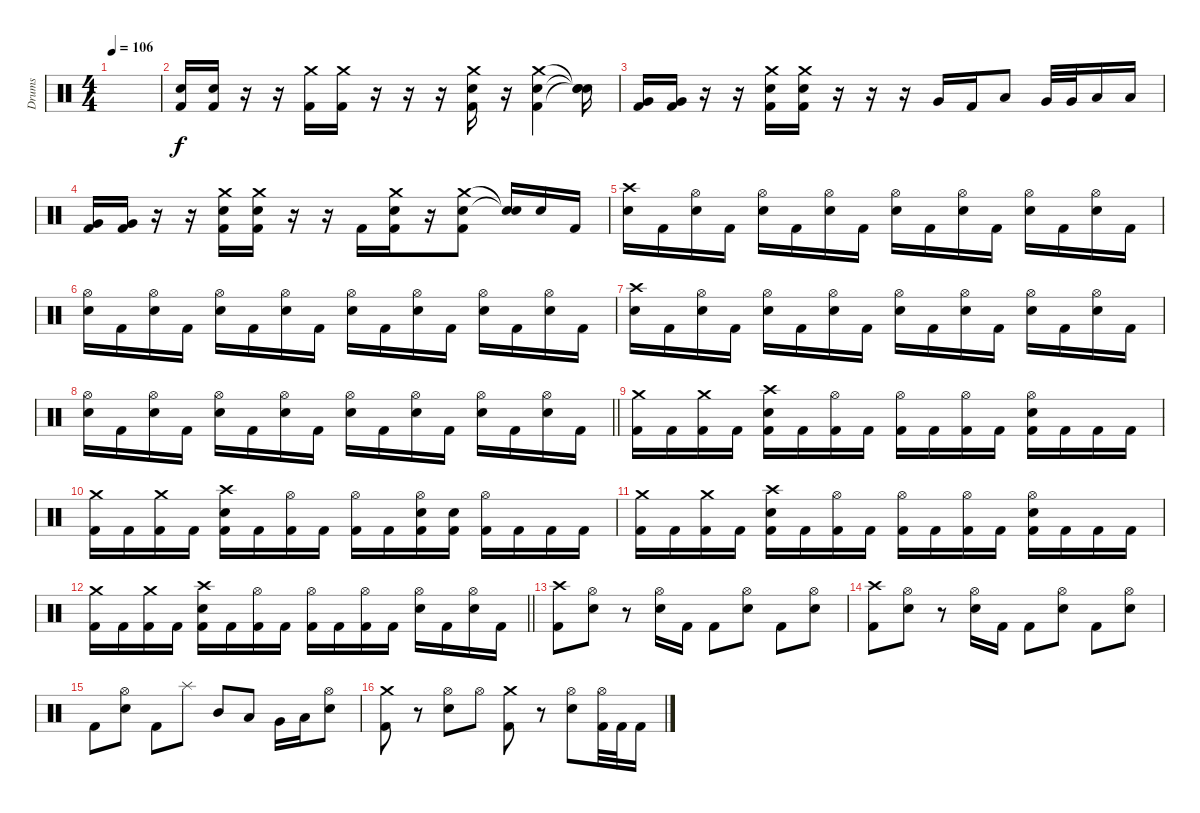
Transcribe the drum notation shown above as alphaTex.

\track ("Drums" "Drums") {instrument percussion}
\staff {score}
\articulation defaults
\ts (4 4)
\section ("" "")
\tempo 106
\clef neutral
\ks aminor
|
\ks c
("Electric Snare (hit)" "Kick (hit) 2").16 ("Electric Snare (hit)" "Kick (hit) 2").16 r.16 r.16 ("Crash medium (hit)" "Kick (hit) 2").16 ("Crash medium (hit)" "Kick (hit) 2").16 r.16 r.16 r.16 ("Crash medium (hit)" "Electric Snare (hit)" "Kick (hit) 2").16 r.16 ("Crash medium (hit)" "Electric Snare (hit)" "Kick (hit) 2").4 ("Snare (hit)"{t} "Snare (hit)"{t} "Snare (hit)"{t}).16 |
("Very Low Tom (hit)" "Kick (hit) 2").16 ("Very Low Tom (hit)" "Kick (hit) 2").16 r.16 r.16 ("Crash medium (hit)" "Electric Snare (hit)" "Kick (hit) 2").16 ("Crash medium (hit)" "Electric Snare (hit)" "Kick (hit) 2").16 r.16 r.16 r.16 "Very Low Tom (hit)".16 "Kick (hit) 2".16 "Low Floor Tom (hit)".8 "Very Low Tom (hit)".32 "Very Low Tom (hit)".32 "Low Floor Tom (hit)".16 "Low Floor Tom (hit)".16 |
("Very Low Tom (hit)" "Kick (hit) 2").16 ("Very Low Tom (hit)" "Kick (hit) 2").16 r.16 r.16 ("Crash medium (hit)" "Electric Snare (hit)" "Kick (hit) 2").16 ("Crash medium (hit)" "Electric Snare (hit)" "Kick (hit) 2").16 r.16 r.16 "Kick (hit) 2".16 ("Crash medium (hit)" "Electric Snare (hit)" "Kick (hit) 2").16 r.16 ("Crash medium (hit)" "Electric Snare (hit)" "Kick (hit) 2").8 ("Snare (hit)"{t} "Snare (hit)"{t}).16 "Electric Snare (hit)".16 "Kick (hit) 2".16 |
\section ("" "")
("Crash high (hit)" "Electric Snare (hit)").16 "Kick (hit) 2".16 ("Hi-Hat (open)" "Electric Snare (hit)").16 "Kick (hit) 2".16 ("Hi-Hat (open)" "Electric Snare (hit)").16 "Kick (hit) 2".16 ("Hi-Hat (open)" "Electric Snare (hit)").16 "Kick (hit) 2".16 ("Hi-Hat (open)" "Electric Snare (hit)").16 "Kick (hit) 2".16 ("Hi-Hat (open)" "Electric Snare (hit)").16 "Kick (hit) 2".16 ("Hi-Hat (open)" "Electric Snare (hit)").16 "Kick (hit) 2".16 ("Hi-Hat (open)" "Electric Snare (hit)").16 "Kick (hit) 2".16 |
("Hi-Hat (open)" "Electric Snare (hit)").16 "Kick (hit) 2".16 ("Hi-Hat (open)" "Electric Snare (hit)").16 "Kick (hit) 2".16 ("Hi-Hat (open)" "Electric Snare (hit)").16 "Kick (hit) 2".16 ("Hi-Hat (open)" "Electric Snare (hit)").16 "Kick (hit) 2".16 ("Hi-Hat (open)" "Electric Snare (hit)").16 "Kick (hit) 2".16 ("Hi-Hat (open)" "Electric Snare (hit)").16 "Kick (hit) 2".16 ("Hi-Hat (open)" "Electric Snare (hit)").16 "Kick (hit) 2".16 ("Hi-Hat (open)" "Electric Snare (hit)").16 "Kick (hit) 2".16 |
("Crash high (hit)" "Electric Snare (hit)").16 "Kick (hit) 2".16 ("Hi-Hat (open)" "Electric Snare (hit)").16 "Kick (hit) 2".16 ("Hi-Hat (open)" "Electric Snare (hit)").16 "Kick (hit) 2".16 ("Hi-Hat (open)" "Electric Snare (hit)").16 "Kick (hit) 2".16 ("Hi-Hat (open)" "Electric Snare (hit)").16 "Kick (hit) 2".16 ("Hi-Hat (open)" "Electric Snare (hit)").16 "Kick (hit) 2".16 ("Hi-Hat (open)" "Electric Snare (hit)").16 "Kick (hit) 2".16 ("Hi-Hat (open)" "Electric Snare (hit)").16 "Kick (hit) 2".16 |
\barLineRight lightlight
("Hi-Hat (open)" "Electric Snare (hit)").16 "Kick (hit) 2".16 ("Hi-Hat (open)" "Electric Snare (hit)").16 "Kick (hit) 2".16 ("Hi-Hat (open)" "Electric Snare (hit)").16 "Kick (hit) 2".16 ("Hi-Hat (open)" "Electric Snare (hit)").16 "Kick (hit) 2".16 ("Hi-Hat (open)" "Electric Snare (hit)").16 "Kick (hit) 2".16 ("Hi-Hat (open)" "Electric Snare (hit)").16 "Kick (hit) 2".16 ("Hi-Hat (open)" "Electric Snare (hit)").16 "Kick (hit) 2".16 ("Hi-Hat (open)" "Electric Snare (hit)").16 "Kick (hit) 2".16 |
\section ("" "")
("Crash medium (hit)" "Kick (hit) 2").16 "Kick (hit) 2".16 ("Crash medium (hit)" "Kick (hit) 2").16 "Kick (hit) 2".16 ("Crash high (hit)" "Electric Snare (hit)" "Kick (hit) 2").16 "Kick (hit) 2".16 ("Hi-Hat (open)" "Kick (hit) 2").16 "Kick (hit) 2".16 ("Hi-Hat (open)" "Kick (hit) 2").16 "Kick (hit) 2".16 ("Hi-Hat (open)" "Kick (hit) 2").16 "Kick (hit) 2".16 ("Hi-Hat (open)" "Electric Snare (hit)" "Kick (hit) 2").16 "Kick (hit) 2".16 "Kick (hit) 2".16 "Kick (hit) 2".16 |
("Crash medium (hit)" "Kick (hit) 2").16 "Kick (hit) 2".16 ("Crash medium (hit)" "Kick (hit) 2").16 "Kick (hit) 2".16 ("Crash high (hit)" "Electric Snare (hit)" "Kick (hit) 2").16 "Kick (hit) 2".16 ("Hi-Hat (open)" "Kick (hit) 2").16 "Kick (hit) 2".16 ("Hi-Hat (open)" "Kick (hit) 2").16 "Kick (hit) 2".16 ("Hi-Hat (open)" "Electric Snare (hit)" "Kick (hit) 2").16 ("Electric Snare (hit)" "Kick (hit) 2").16 ("Hi-Hat (open)" "Kick (hit) 2").16 "Kick (hit) 2".16 "Kick (hit) 2".16 "Kick (hit) 2".16 |
("Crash medium (hit)" "Kick (hit) 2").16 "Kick (hit) 2".16 ("Crash medium (hit)" "Kick (hit) 2").16 "Kick (hit) 2".16 ("Crash high (hit)" "Electric Snare (hit)" "Kick (hit) 2").16 "Kick (hit) 2".16 ("Hi-Hat (open)" "Kick (hit) 2").16 "Kick (hit) 2".16 ("Hi-Hat (open)" "Kick (hit) 2").16 "Kick (hit) 2".16 ("Hi-Hat (open)" "Kick (hit) 2").16 "Kick (hit) 2".16 ("Hi-Hat (open)" "Electric Snare (hit)" "Kick (hit) 2").16 "Kick (hit) 2".16 "Kick (hit) 2".16 "Kick (hit) 2".16 |
\barLineRight lightlight
("Crash medium (hit)" "Kick (hit) 2").16 "Kick (hit) 2".16 ("Crash medium (hit)" "Kick (hit) 2").16 "Kick (hit) 2".16 ("Crash high (hit)" "Electric Snare (hit)" "Kick (hit) 2").16 "Kick (hit) 2".16 ("Hi-Hat (open)" "Kick (hit) 2").16 "Kick (hit) 2".16 ("Hi-Hat (open)" "Kick (hit) 2").16 "Kick (hit) 2".16 ("Hi-Hat (open)" "Kick (hit) 2").16 "Kick (hit) 2".16 ("Hi-Hat (open)" "Electric Snare (hit)").16 "Kick (hit) 2".16 ("Hi-Hat (open)" "Electric Snare (hit)").16 "Kick (hit) 2".16 |
\section ("" "")
("Crash high (hit)" "Kick (hit) 2").8 ("Hi-Hat (open)" "Electric Snare (hit)").8 r.8 ("Hi-Hat (open)" "Electric Snare (hit)").16 "Kick (hit) 2".16 "Kick (hit) 2".8 ("Hi-Hat (open)" "Electric Snare (hit)").8 "Kick (hit) 2".8 ("Hi-Hat (open)" "Electric Snare (hit)").8 |
("Crash high (hit)" "Kick (hit) 2").8 ("Hi-Hat (open)" "Electric Snare (hit)").8 r.8 ("Hi-Hat (open)" "Electric Snare (hit)").16 "Kick (hit) 2".16 "Kick (hit) 2".8 ("Hi-Hat (open)" "Electric Snare (hit)").8 "Kick (hit) 2".8 ("Hi-Hat (open)" "Electric Snare (hit)").8 |
"Kick (hit) 2".8 ("Hi-Hat (open)" "Electric Snare (hit)").8 "Kick (hit) 2".8 "Splash (hit)".8 "Mid Tom (hit)".8 "Low Tom (hit)".8 "Very Low Tom (hit)".16 "Low Floor Tom (hit)".16 ("Hi-Hat (open)" "Electric Snare (hit)").8 |
("Crash medium (hit)" "Kick (hit) 2").8 r.8 ("Hi-Hat (open)" "Electric Snare (hit)").8 "Hi-Hat (open)".8 ("Crash medium (hit)" "Kick (hit) 2").8 r.8 ("Hi-Hat (open)" "Electric Snare (hit)").8 ("Hi-Hat (open)" "Kick (hit) 2").32 "Kick (hit) 2".32 "Kick (hit) 2".16
